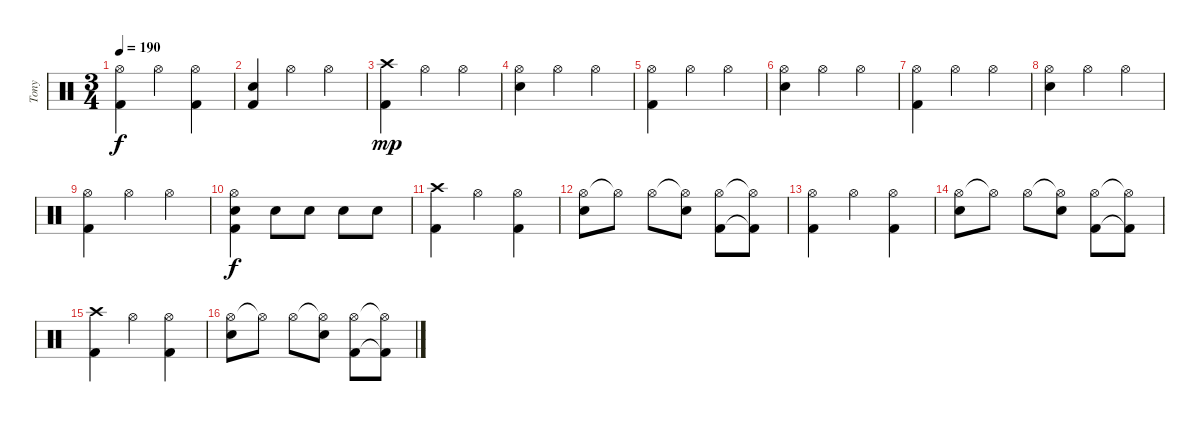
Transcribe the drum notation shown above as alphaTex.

\track ("Tony" "Tony") {instrument percussion}
\staff {score}
\articulation defaults
\ts (3 4)
\tempo 190
\clef neutral
\ks c
("Hi-Hat (open)" "Kick (hit) 2").4{dy f} "Hi-Hat (open)".4 ("Hi-Hat (open)" "Kick (hit) 2").4 |
("Snare (hit) 2" "Kick (hit) 2").4 "Hi-Hat (open)".4 "Hi-Hat (open)".4 |
("Crash high (hit)" "Kick (hit) 2").4{dy mp} "Hi-Hat (open)".4 "Hi-Hat (open)".4 |
("Hi-Hat (open)" "Snare (hit) 2").4 "Hi-Hat (open)".4 "Hi-Hat (open)".4 |
("Hi-Hat (open)" "Kick (hit) 2").4 "Hi-Hat (open)".4 "Hi-Hat (open)".4 |
("Hi-Hat (open)" "Snare (hit) 2").4 "Hi-Hat (open)".4 "Hi-Hat (open)".4 |
("Hi-Hat (open)" "Kick (hit) 2").4 "Hi-Hat (open)".4 "Hi-Hat (open)".4 |
("Hi-Hat (open)" "Snare (hit) 2").4 "Hi-Hat (open)".4 "Hi-Hat (open)".4 |
("Hi-Hat (open)" "Kick (hit) 2").4 "Hi-Hat (open)".4 "Hi-Hat (open)".4 |
("Hi-Hat (open)" "Snare (hit) 2" "Kick (hit) 2").4{dy f} "Snare (hit) 2".8 "Snare (hit) 2".8 "Snare (hit) 2".8 "Snare (hit) 2".8 |
("Crash high (hit)" "Kick (hit) 2").4 "Hi-Hat (open)".4 ("Hi-Hat (open)" "Kick (hit) 2").4 |
("Hi-Hat (open)" "Snare (hit) 2").8 "Hi-Hat (open)"{t}.8 "Hi-Hat (open)".8 ("Hi-Hat (open)"{t} "Snare (hit) 2").8 ("Hi-Hat (open)" "Kick (hit) 2").8 ("Hi-Hat (open)"{t} "Kick (hit) 2"{t}).8 |
("Hi-Hat (open)" "Kick (hit) 2").4 "Hi-Hat (open)".4 ("Hi-Hat (open)" "Kick (hit) 2").4 |
("Hi-Hat (open)" "Snare (hit) 2").8 "Hi-Hat (open)"{t}.8 "Hi-Hat (open)".8 ("Hi-Hat (open)"{t} "Snare (hit) 2").8 ("Hi-Hat (open)" "Kick (hit) 2").8 ("Hi-Hat (open)"{t} "Kick (hit) 2"{t}).8 |
("Crash high (hit)" "Kick (hit) 2").4 "Hi-Hat (open)".4 ("Hi-Hat (open)" "Kick (hit) 2").4 |
("Hi-Hat (open)" "Snare (hit) 2").8 "Hi-Hat (open)"{t}.8 "Hi-Hat (open)".8 ("Hi-Hat (open)"{t} "Snare (hit) 2").8 ("Hi-Hat (open)" "Kick (hit) 2").8 ("Hi-Hat (open)"{t} "Kick (hit) 2"{t}).8
